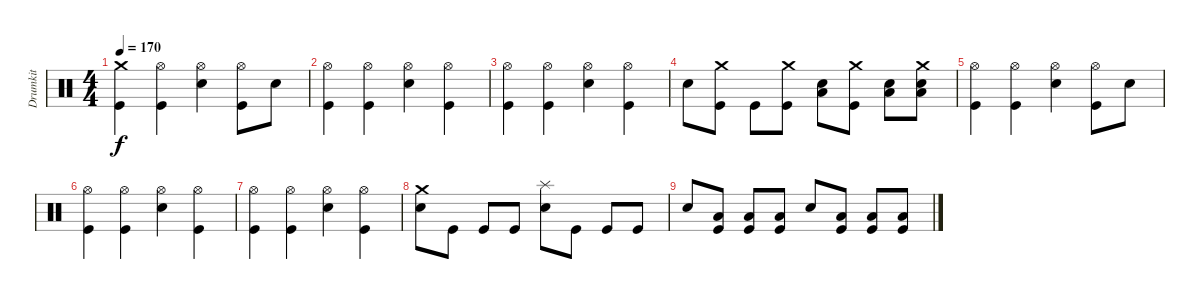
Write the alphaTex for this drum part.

\track ("Drumkit" "Drumkit") {instrument percussion}
\staff {score}
\articulation defaults
\ts (4 4)
\tempo 170
\clef neutral
\ks c
("Crash medium (hit)" "Kick (hit)").4{dy f} ("Hi-Hat (open)" "Kick (hit)").4 ("Hi-Hat (open)" "Snare (hit) 2").4 ("Hi-Hat (open)" "Kick (hit)").8 "Snare (hit) 2".8 |
("Hi-Hat (open)" "Kick (hit)").4 ("Hi-Hat (open)" "Kick (hit)").4 ("Hi-Hat (open)" "Snare (hit) 2").4 ("Hi-Hat (open)" "Kick (hit)").4 |
("Hi-Hat (open)" "Kick (hit)").4 ("Hi-Hat (open)" "Kick (hit)").4 ("Hi-Hat (open)" "Snare (hit) 2").4 ("Hi-Hat (open)" "Kick (hit)").4 |
"Snare (hit) 2".8 ("Crash medium (hit)" "Kick (hit)").8 "Kick (hit)".8 ("Crash medium (hit)" "Kick (hit)").8 ("Low Tom (hit)" "Snare (hit) 2").8 ("Crash medium (hit)" "Kick (hit)").8 ("Low Floor Tom (hit)" "Snare (hit) 2").8 ("Crash medium (hit)" "Low Floor Tom (hit)" "Snare (hit) 2").8 |
("Hi-Hat (open)" "Kick (hit)").4 ("Hi-Hat (open)" "Kick (hit)").4 ("Hi-Hat (open)" "Snare (hit) 2").4 ("Hi-Hat (open)" "Kick (hit)").8 "Snare (hit) 2".8 |
("Hi-Hat (open)" "Kick (hit)").4 ("Hi-Hat (open)" "Kick (hit)").4 ("Hi-Hat (open)" "Snare (hit) 2").4 ("Hi-Hat (open)" "Kick (hit)").4 |
("Hi-Hat (open)" "Kick (hit)").4 ("Hi-Hat (open)" "Kick (hit)").4 ("Hi-Hat (open)" "Snare (hit) 2").4 ("Hi-Hat (open)" "Kick (hit)").4 |
("Crash medium (hit)" "Snare (hit) 2").8 "Kick (hit)".8 "Kick (hit)".8 "Kick (hit)".8 ("Splash (hit)" "Snare (hit) 2").8 "Kick (hit)".8 "Kick (hit)".8 "Kick (hit)".8 |
"Snare (hit) 2".8 ("Low Tom (hit)" "Kick (hit)").8 ("Low Floor Tom (hit)" "Kick (hit)").8 ("Low Floor Tom (hit)" "Kick (hit)").8 "Snare (hit) 2".8 ("Low Tom (hit)" "Kick (hit)").8 ("Low Floor Tom (hit)" "Kick (hit)").8 ("Low Floor Tom (hit)" "Kick (hit)").8
